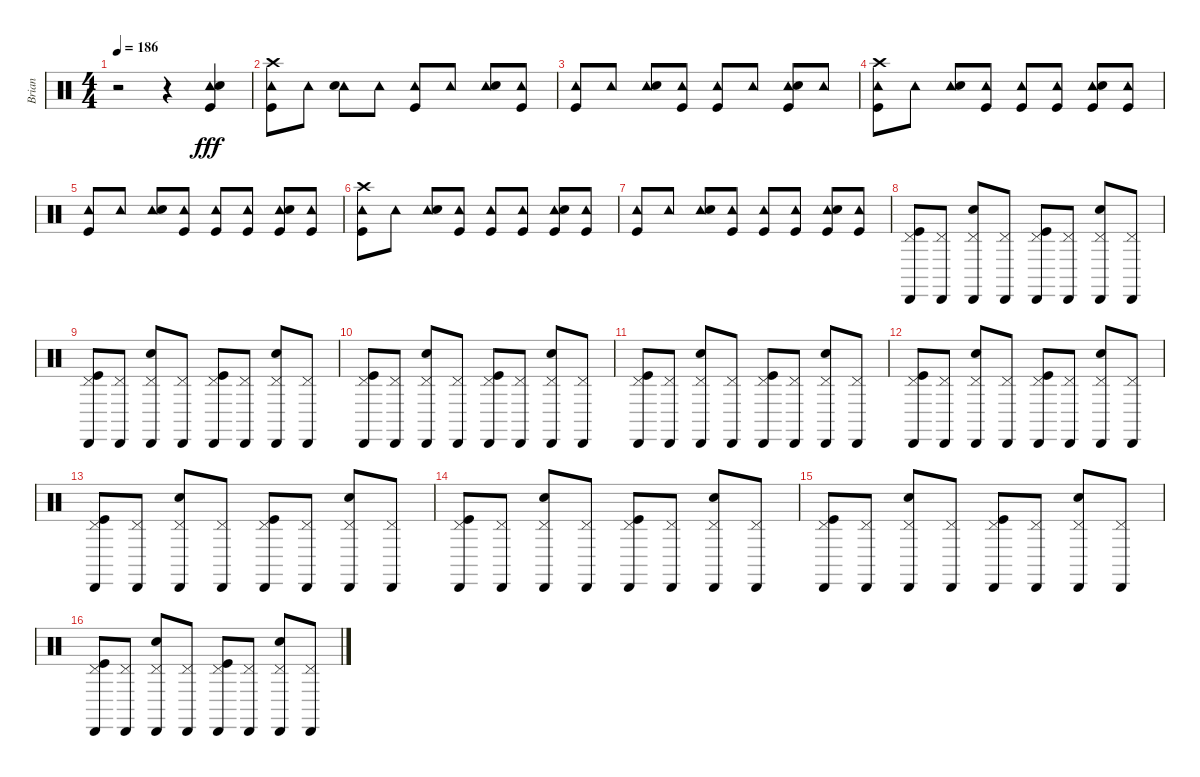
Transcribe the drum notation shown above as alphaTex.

\track ("Brian" "Brian") {instrument percussion}
\staff {score}
\articulation defaults
\ts (4 4)
\tempo 186
\clef neutral
\ks c
r.2{dy fff} r.4 ("Tambourine (hit)" "Snare (hit) 2" "Kick (hit)").4 |
("Tambourine (hit)" "Crash high (hit)" "Kick (hit)").8 "Tambourine (hit)".8 ("Tambourine (hit)" "Snare (hit) 2").8 "Tambourine (hit)".8 ("Tambourine (hit)" "Kick (hit)").8 "Tambourine (hit)".8 ("Tambourine (hit)" "Snare (hit) 2").8 ("Tambourine (hit)" "Kick (hit)").8 |
("Tambourine (hit)" "Kick (hit)").8 "Tambourine (hit)".8 ("Tambourine (hit)" "Snare (hit) 2").8 ("Tambourine (hit)" "Kick (hit)").8 ("Tambourine (hit)" "Kick (hit)").8 "Tambourine (hit)".8 ("Tambourine (hit)" "Snare (hit) 2" "Kick (hit)").8 "Tambourine (hit)".8 |
("Tambourine (hit)" "Crash high (hit)" "Kick (hit)").8 "Tambourine (hit)".8 ("Tambourine (hit)" "Snare (hit) 2").8 ("Tambourine (hit)" "Kick (hit)").8 ("Tambourine (hit)" "Kick (hit)").8 ("Tambourine (hit)" "Kick (hit)").8 ("Tambourine (hit)" "Snare (hit) 2" "Kick (hit)").8 ("Tambourine (hit)" "Kick (hit)").8 |
("Tambourine (hit)" "Kick (hit)").8 "Tambourine (hit)".8 ("Tambourine (hit)" "Snare (hit) 2").8 ("Tambourine (hit)" "Kick (hit)").8 ("Tambourine (hit)" "Kick (hit)").8 ("Tambourine (hit)" "Kick (hit)").8 ("Tambourine (hit)" "Snare (hit) 2" "Kick (hit)").8 ("Tambourine (hit)" "Kick (hit)").8 |
("Tambourine (hit)" "Crash high (hit)" "Kick (hit)").8 "Tambourine (hit)".8 ("Tambourine (hit)" "Snare (hit) 2").8 ("Tambourine (hit)" "Kick (hit)").8 ("Tambourine (hit)" "Kick (hit)").8 ("Tambourine (hit)" "Kick (hit)").8 ("Tambourine (hit)" "Snare (hit) 2" "Kick (hit)").8 ("Tambourine (hit)" "Kick (hit)").8 |
("Tambourine (hit)" "Kick (hit)").8 "Tambourine (hit)".8 ("Tambourine (hit)" "Snare (hit) 2").8 ("Tambourine (hit)" "Kick (hit)").8 ("Tambourine (hit)" "Kick (hit)").8 ("Tambourine (hit)" "Kick (hit)").8 ("Tambourine (hit)" "Snare (hit) 2" "Kick (hit)").8 ("Tambourine (hit)" "Kick (hit)").8 |
("Cabasa (hit)" "Pedal Hi-Hat (hit)" "Kick (hit)").8 ("Cabasa (hit)" "Pedal Hi-Hat (hit)").8 ("Cabasa (hit)" "Pedal Hi-Hat (hit)" "Snare (hit) 2").8 ("Cabasa (hit)" "Pedal Hi-Hat (hit)").8 ("Cabasa (hit)" "Pedal Hi-Hat (hit)" "Kick (hit)").8 ("Cabasa (hit)" "Pedal Hi-Hat (hit)").8 ("Cabasa (hit)" "Pedal Hi-Hat (hit)" "Snare (hit) 2").8 ("Cabasa (hit)" "Pedal Hi-Hat (hit)").8 |
("Cabasa (hit)" "Pedal Hi-Hat (hit)" "Kick (hit)").8 ("Cabasa (hit)" "Pedal Hi-Hat (hit)").8 ("Cabasa (hit)" "Pedal Hi-Hat (hit)" "Snare (hit) 2").8 ("Cabasa (hit)" "Pedal Hi-Hat (hit)").8 ("Cabasa (hit)" "Pedal Hi-Hat (hit)" "Kick (hit)").8 ("Cabasa (hit)" "Pedal Hi-Hat (hit)").8 ("Cabasa (hit)" "Pedal Hi-Hat (hit)" "Snare (hit) 2").8 ("Cabasa (hit)" "Pedal Hi-Hat (hit)").8 |
("Cabasa (hit)" "Pedal Hi-Hat (hit)" "Kick (hit)").8 ("Cabasa (hit)" "Pedal Hi-Hat (hit)").8 ("Cabasa (hit)" "Pedal Hi-Hat (hit)" "Snare (hit) 2").8 ("Cabasa (hit)" "Pedal Hi-Hat (hit)").8 ("Cabasa (hit)" "Pedal Hi-Hat (hit)" "Kick (hit)").8 ("Cabasa (hit)" "Pedal Hi-Hat (hit)").8 ("Cabasa (hit)" "Pedal Hi-Hat (hit)" "Snare (hit) 2").8 ("Cabasa (hit)" "Pedal Hi-Hat (hit)").8 |
("Cabasa (hit)" "Pedal Hi-Hat (hit)" "Kick (hit)").8 ("Cabasa (hit)" "Pedal Hi-Hat (hit)").8 ("Cabasa (hit)" "Pedal Hi-Hat (hit)" "Snare (hit) 2").8 ("Cabasa (hit)" "Pedal Hi-Hat (hit)").8 ("Cabasa (hit)" "Pedal Hi-Hat (hit)" "Kick (hit)").8 ("Cabasa (hit)" "Pedal Hi-Hat (hit)").8 ("Cabasa (hit)" "Pedal Hi-Hat (hit)" "Snare (hit) 2").8 ("Cabasa (hit)" "Pedal Hi-Hat (hit)").8 |
("Cabasa (hit)" "Pedal Hi-Hat (hit)" "Kick (hit)").8 ("Cabasa (hit)" "Pedal Hi-Hat (hit)").8 ("Cabasa (hit)" "Pedal Hi-Hat (hit)" "Snare (hit) 2").8 ("Cabasa (hit)" "Pedal Hi-Hat (hit)").8 ("Cabasa (hit)" "Pedal Hi-Hat (hit)" "Kick (hit)").8 ("Cabasa (hit)" "Pedal Hi-Hat (hit)").8 ("Cabasa (hit)" "Pedal Hi-Hat (hit)" "Snare (hit) 2").8 ("Cabasa (hit)" "Pedal Hi-Hat (hit)").8 |
("Cabasa (hit)" "Pedal Hi-Hat (hit)" "Kick (hit)").8 ("Cabasa (hit)" "Pedal Hi-Hat (hit)").8 ("Cabasa (hit)" "Pedal Hi-Hat (hit)" "Snare (hit) 2").8 ("Cabasa (hit)" "Pedal Hi-Hat (hit)").8 ("Cabasa (hit)" "Pedal Hi-Hat (hit)" "Kick (hit)").8 ("Cabasa (hit)" "Pedal Hi-Hat (hit)").8 ("Cabasa (hit)" "Pedal Hi-Hat (hit)" "Snare (hit) 2").8 ("Cabasa (hit)" "Pedal Hi-Hat (hit)").8 |
("Cabasa (hit)" "Pedal Hi-Hat (hit)" "Kick (hit)").8 ("Cabasa (hit)" "Pedal Hi-Hat (hit)").8 ("Cabasa (hit)" "Pedal Hi-Hat (hit)" "Snare (hit) 2").8 ("Cabasa (hit)" "Pedal Hi-Hat (hit)").8 ("Cabasa (hit)" "Pedal Hi-Hat (hit)" "Kick (hit)").8 ("Cabasa (hit)" "Pedal Hi-Hat (hit)").8 ("Cabasa (hit)" "Pedal Hi-Hat (hit)" "Snare (hit) 2").8 ("Cabasa (hit)" "Pedal Hi-Hat (hit)").8 |
("Cabasa (hit)" "Pedal Hi-Hat (hit)" "Kick (hit)").8 ("Cabasa (hit)" "Pedal Hi-Hat (hit)").8 ("Cabasa (hit)" "Pedal Hi-Hat (hit)" "Snare (hit) 2").8 ("Cabasa (hit)" "Pedal Hi-Hat (hit)").8 ("Cabasa (hit)" "Pedal Hi-Hat (hit)" "Kick (hit)").8 ("Cabasa (hit)" "Pedal Hi-Hat (hit)").8 ("Cabasa (hit)" "Pedal Hi-Hat (hit)" "Snare (hit) 2").8 ("Cabasa (hit)" "Pedal Hi-Hat (hit)").8 |
("Cabasa (hit)" "Pedal Hi-Hat (hit)" "Kick (hit)").8 ("Cabasa (hit)" "Pedal Hi-Hat (hit)").8 ("Cabasa (hit)" "Pedal Hi-Hat (hit)" "Snare (hit) 2").8 ("Cabasa (hit)" "Pedal Hi-Hat (hit)").8 ("Cabasa (hit)" "Pedal Hi-Hat (hit)" "Kick (hit)").8 ("Cabasa (hit)" "Pedal Hi-Hat (hit)").8 ("Cabasa (hit)" "Pedal Hi-Hat (hit)" "Snare (hit) 2").8 ("Cabasa (hit)" "Pedal Hi-Hat (hit)").8
